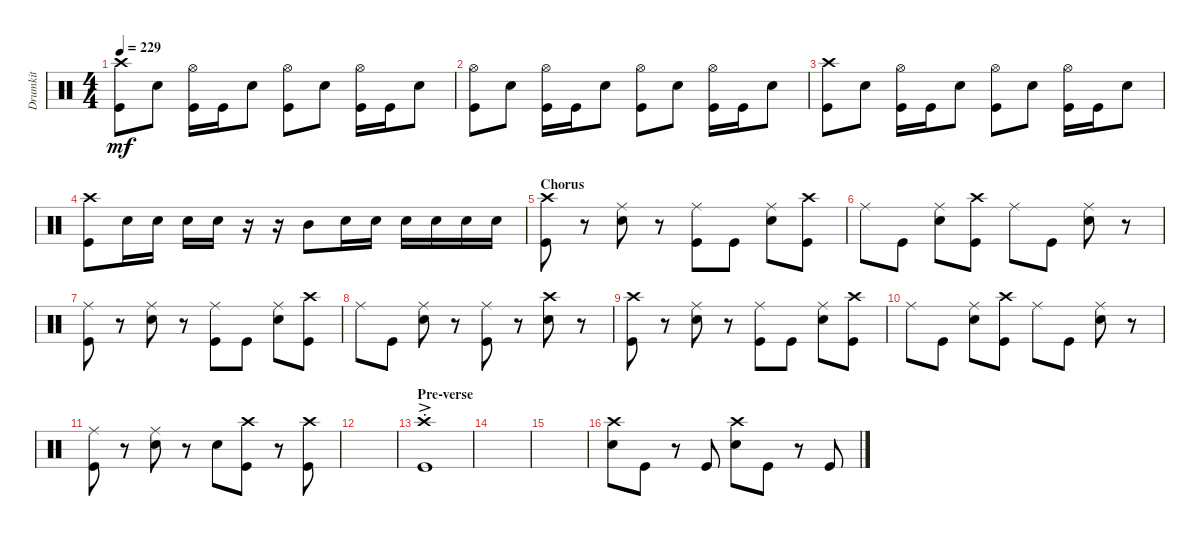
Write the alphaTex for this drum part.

\track ("Drumkit" "Drumkit") {instrument percussion}
\staff {score}
\articulation defaults
\ts (4 4)
\tempo 229
\clef neutral
\ks c
("Kick (hit)" "Crash high (hit)").8{dy mf} "Snare (hit) 2".8 ("Kick (hit)" "Hi-Hat (open)").16 "Kick (hit)".16 "Snare (hit) 2".8 ("Kick (hit)" "Hi-Hat (open)").8 "Snare (hit) 2".8 ("Kick (hit)" "Hi-Hat (open)").16 "Kick (hit)".16 "Snare (hit) 2".8 |
("Kick (hit)" "Hi-Hat (open)").8 "Snare (hit) 2".8 ("Kick (hit)" "Hi-Hat (open)").16 "Kick (hit)".16 "Snare (hit) 2".8 ("Kick (hit)" "Hi-Hat (open)").8 "Snare (hit) 2".8 ("Kick (hit)" "Hi-Hat (open)").16 "Kick (hit)".16 "Snare (hit) 2".8 |
("Kick (hit)" "Crash high (hit)").8 "Snare (hit) 2".8 ("Kick (hit)" "Hi-Hat (open)").16 "Kick (hit)".16 "Snare (hit) 2".8 ("Kick (hit)" "Hi-Hat (open)").8 "Snare (hit) 2".8 ("Kick (hit)" "Hi-Hat (open)").16 "Kick (hit)".16 "Snare (hit) 2".8 |
("Kick (hit)" "Crash high (hit)").8 "Snare (hit) 2".16 "Snare (hit) 2".16 "Snare (hit) 2".16 "Snare (hit) 2".16 r.16 r.16 "Mid Tom (hit)".8 "Snare (hit) 2".16 "Snare (hit) 2".16 "Snare (hit) 2".16 "Snare (hit) 2".16 "Snare (hit) 2".16 "Snare (hit) 2".16 |
\section ("" "Chorus")
("Kick (hit)" "Crash high (hit)").8 r.8 ("Snare (hit) 2" "Ride (middle)").8 r.8 ("Kick (hit)" "Ride (middle)").8 "Kick (hit)".8 ("Snare (hit) 2" "Ride (middle)").8 ("Kick (hit)" "Crash high (hit)").8 |
"Ride (middle)".8 "Kick (hit)".8 ("Snare (hit) 2" "Ride (middle)").8 ("Kick (hit)" "Crash high (hit)").8 "Ride (middle)".8 "Kick (hit)".8 ("Snare (hit) 2" "Ride (middle)").8 r.8 |
("Kick (hit)" "Ride (middle)").8 r.8 ("Snare (hit) 2" "Ride (middle)").8 r.8 ("Kick (hit)" "Ride (middle)").8 "Kick (hit)".8 ("Snare (hit) 2" "Ride (middle)").8 ("Kick (hit)" "Crash high (hit)").8 |
"Ride (middle)".8 "Kick (hit)".8 ("Snare (hit) 2" "Ride (middle)").8 r.8 ("Kick (hit)" "Ride (middle)").8 r.8 ("Snare (hit) 2" "Crash high (hit)").8 r.8 |
("Kick (hit)" "Crash high (hit)").8 r.8 ("Snare (hit) 2" "Ride (middle)").8 r.8 ("Kick (hit)" "Ride (middle)").8 "Kick (hit)".8 ("Snare (hit) 2" "Ride (middle)").8 ("Kick (hit)" "Crash high (hit)").8 |
"Ride (middle)".8 "Kick (hit)".8 ("Snare (hit) 2" "Ride (middle)").8 ("Kick (hit)" "Crash high (hit)").8 "Ride (middle)".8 "Kick (hit)".8 ("Snare (hit) 2" "Ride (middle)").8 r.8 |
("Kick (hit)" "Ride (middle)").8 r.8 ("Snare (hit) 2" "Ride (middle)").8 r.8 "Snare (hit) 2".8 ("Kick (hit)" "Crash high (hit)").8 r.8 ("Kick (hit)" "Crash high (hit)").8 |
|
\section ("" "Pre-verse")
("Kick (hit)" "Crash high (hit)"{ac st}).1 |
|
|
("Snare (hit) 2" "Crash high (hit)").8 "Kick (hit)".8 r.8 "Kick (hit)".8 ("Snare (hit) 2" "Crash high (hit)").8 "Kick (hit)".8 r.8 "Kick (hit)".8
